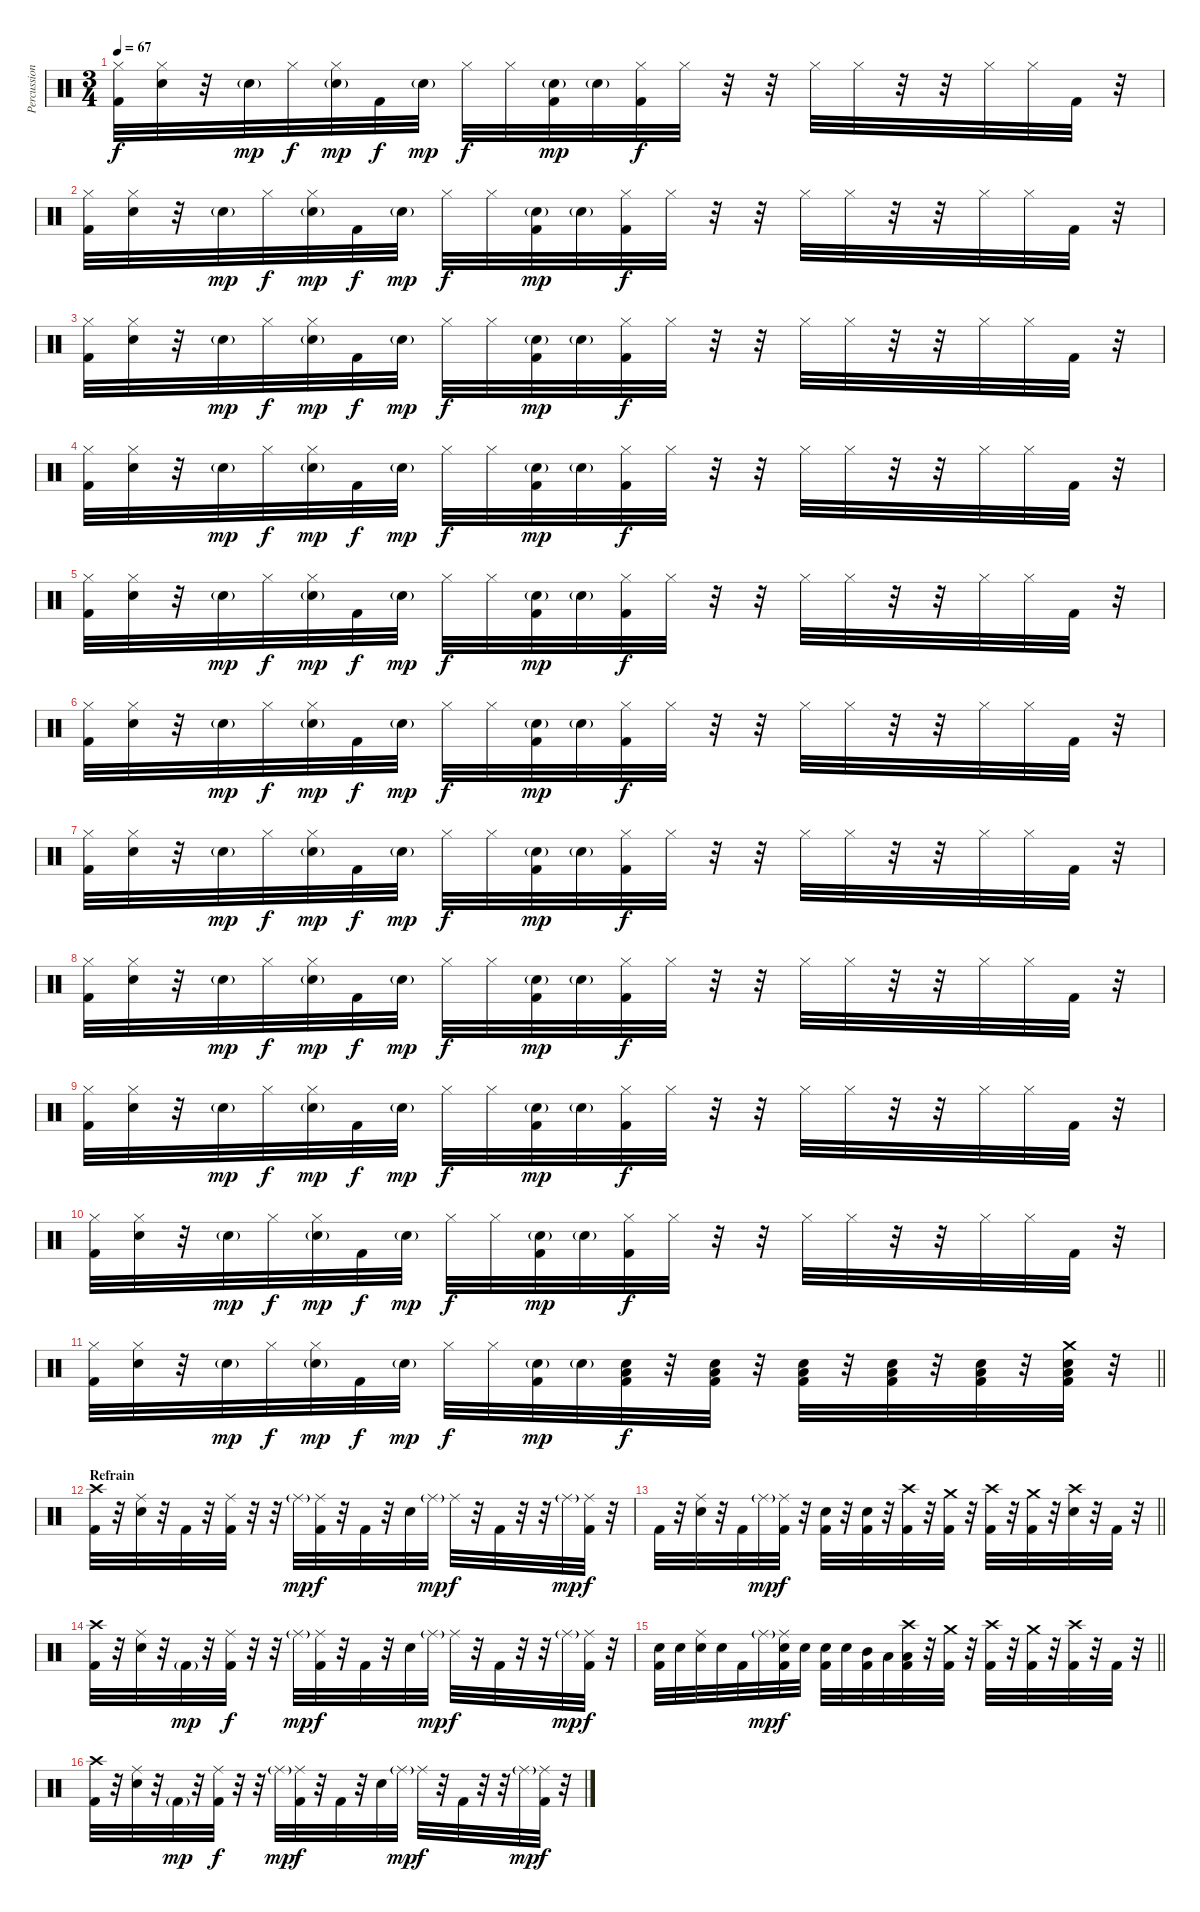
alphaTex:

\track ("Percussions" "Percussion") {instrument percussion}
\staff {score}
\articulation defaults
\ts (3 4)
\tempo 67
\clef neutral
\ks c
("Hi-Hat (closed)" "Kick (hit) 2").32{dy f} ("Hi-Hat (closed)" "Electric Snare (hit)").32 r.32 "Electric Snare (hit)"{g}.32{dy mp} "Hi-Hat (closed)".32{dy f} ("Hi-Hat (closed)" "Electric Snare (hit)"{g}).32{dy mp} "Kick (hit) 2".32{dy f} "Electric Snare (hit)"{g}.32{dy mp} "Hi-Hat (closed)".32{dy f} "Hi-Hat (closed)".32 ("Electric Snare (hit)"{g} "Kick (hit) 2").32{dy mp} "Electric Snare (hit)"{g}.32 ("Hi-Hat (closed)" "Kick (hit) 2").32{dy f} "Hi-Hat (closed)".32 r.32 r.32 "Hi-Hat (closed)".32 "Hi-Hat (closed)".32 r.32 r.32 "Hi-Hat (closed)".32 "Hi-Hat (closed)".32 "Kick (hit) 2".32 r.32 |
("Hi-Hat (closed)" "Kick (hit) 2").32 ("Hi-Hat (closed)" "Electric Snare (hit)").32 r.32 "Electric Snare (hit)"{g}.32{dy mp} "Hi-Hat (closed)".32{dy f} ("Hi-Hat (closed)" "Electric Snare (hit)"{g}).32{dy mp} "Kick (hit) 2".32{dy f} "Electric Snare (hit)"{g}.32{dy mp} "Hi-Hat (closed)".32{dy f} "Hi-Hat (closed)".32 ("Electric Snare (hit)"{g} "Kick (hit) 2").32{dy mp} "Electric Snare (hit)"{g}.32 ("Hi-Hat (closed)" "Kick (hit) 2").32{dy f} "Hi-Hat (closed)".32 r.32 r.32 "Hi-Hat (closed)".32 "Hi-Hat (closed)".32 r.32 r.32 "Hi-Hat (closed)".32 "Hi-Hat (closed)".32 "Kick (hit) 2".32 r.32 |
("Hi-Hat (closed)" "Kick (hit) 2").32 ("Hi-Hat (closed)" "Electric Snare (hit)").32 r.32 "Electric Snare (hit)"{g}.32{dy mp} "Hi-Hat (closed)".32{dy f} ("Hi-Hat (closed)" "Electric Snare (hit)"{g}).32{dy mp} "Kick (hit) 2".32{dy f} "Electric Snare (hit)"{g}.32{dy mp} "Hi-Hat (closed)".32{dy f} "Hi-Hat (closed)".32 ("Electric Snare (hit)"{g} "Kick (hit) 2").32{dy mp} "Electric Snare (hit)"{g}.32 ("Hi-Hat (closed)" "Kick (hit) 2").32{dy f} "Hi-Hat (closed)".32 r.32 r.32 "Hi-Hat (closed)".32 "Hi-Hat (closed)".32 r.32 r.32 "Hi-Hat (closed)".32 "Hi-Hat (closed)".32 "Kick (hit) 2".32 r.32 |
("Hi-Hat (closed)" "Kick (hit) 2").32 ("Hi-Hat (closed)" "Electric Snare (hit)").32 r.32 "Electric Snare (hit)"{g}.32{dy mp} "Hi-Hat (closed)".32{dy f} ("Hi-Hat (closed)" "Electric Snare (hit)"{g}).32{dy mp} "Kick (hit) 2".32{dy f} "Electric Snare (hit)"{g}.32{dy mp} "Hi-Hat (closed)".32{dy f} "Hi-Hat (closed)".32 ("Electric Snare (hit)"{g} "Kick (hit) 2").32{dy mp} "Electric Snare (hit)"{g}.32 ("Hi-Hat (closed)" "Kick (hit) 2").32{dy f} "Hi-Hat (closed)".32 r.32 r.32 "Hi-Hat (closed)".32 "Hi-Hat (closed)".32 r.32 r.32 "Hi-Hat (closed)".32 "Hi-Hat (closed)".32 "Kick (hit) 2".32 r.32 |
("Hi-Hat (closed)" "Kick (hit) 2").32 ("Hi-Hat (closed)" "Electric Snare (hit)").32 r.32 "Electric Snare (hit)"{g}.32{dy mp} "Hi-Hat (closed)".32{dy f} ("Hi-Hat (closed)" "Electric Snare (hit)"{g}).32{dy mp} "Kick (hit) 2".32{dy f} "Electric Snare (hit)"{g}.32{dy mp} "Hi-Hat (closed)".32{dy f} "Hi-Hat (closed)".32 ("Electric Snare (hit)"{g} "Kick (hit) 2").32{dy mp} "Electric Snare (hit)"{g}.32 ("Hi-Hat (closed)" "Kick (hit) 2").32{dy f} "Hi-Hat (closed)".32 r.32 r.32 "Hi-Hat (closed)".32 "Hi-Hat (closed)".32 r.32 r.32 "Hi-Hat (closed)".32 "Hi-Hat (closed)".32 "Kick (hit) 2".32 r.32 |
("Hi-Hat (closed)" "Kick (hit) 2").32 ("Hi-Hat (closed)" "Electric Snare (hit)").32 r.32 "Electric Snare (hit)"{g}.32{dy mp} "Hi-Hat (closed)".32{dy f} ("Hi-Hat (closed)" "Electric Snare (hit)"{g}).32{dy mp} "Kick (hit) 2".32{dy f} "Electric Snare (hit)"{g}.32{dy mp} "Hi-Hat (closed)".32{dy f} "Hi-Hat (closed)".32 ("Electric Snare (hit)"{g} "Kick (hit) 2").32{dy mp} "Electric Snare (hit)"{g}.32 ("Hi-Hat (closed)" "Kick (hit) 2").32{dy f} "Hi-Hat (closed)".32 r.32 r.32 "Hi-Hat (closed)".32 "Hi-Hat (closed)".32 r.32 r.32 "Hi-Hat (closed)".32 "Hi-Hat (closed)".32 "Kick (hit) 2".32 r.32 |
("Hi-Hat (closed)" "Kick (hit) 2").32 ("Hi-Hat (closed)" "Electric Snare (hit)").32 r.32 "Electric Snare (hit)"{g}.32{dy mp} "Hi-Hat (closed)".32{dy f} ("Hi-Hat (closed)" "Electric Snare (hit)"{g}).32{dy mp} "Kick (hit) 2".32{dy f} "Electric Snare (hit)"{g}.32{dy mp} "Hi-Hat (closed)".32{dy f} "Hi-Hat (closed)".32 ("Electric Snare (hit)"{g} "Kick (hit) 2").32{dy mp} "Electric Snare (hit)"{g}.32 ("Hi-Hat (closed)" "Kick (hit) 2").32{dy f} "Hi-Hat (closed)".32 r.32 r.32 "Hi-Hat (closed)".32 "Hi-Hat (closed)".32 r.32 r.32 "Hi-Hat (closed)".32 "Hi-Hat (closed)".32 "Kick (hit) 2".32 r.32 |
("Hi-Hat (closed)" "Kick (hit) 2").32 ("Hi-Hat (closed)" "Electric Snare (hit)").32 r.32 "Electric Snare (hit)"{g}.32{dy mp} "Hi-Hat (closed)".32{dy f} ("Hi-Hat (closed)" "Electric Snare (hit)"{g}).32{dy mp} "Kick (hit) 2".32{dy f} "Electric Snare (hit)"{g}.32{dy mp} "Hi-Hat (closed)".32{dy f} "Hi-Hat (closed)".32 ("Electric Snare (hit)"{g} "Kick (hit) 2").32{dy mp} "Electric Snare (hit)"{g}.32 ("Hi-Hat (closed)" "Kick (hit) 2").32{dy f} "Hi-Hat (closed)".32 r.32 r.32 "Hi-Hat (closed)".32 "Hi-Hat (closed)".32 r.32 r.32 "Hi-Hat (closed)".32 "Hi-Hat (closed)".32 "Kick (hit) 2".32 r.32 |
("Hi-Hat (closed)" "Kick (hit) 2").32 ("Hi-Hat (closed)" "Electric Snare (hit)").32 r.32 "Electric Snare (hit)"{g}.32{dy mp} "Hi-Hat (closed)".32{dy f} ("Hi-Hat (closed)" "Electric Snare (hit)"{g}).32{dy mp} "Kick (hit) 2".32{dy f} "Electric Snare (hit)"{g}.32{dy mp} "Hi-Hat (closed)".32{dy f} "Hi-Hat (closed)".32 ("Electric Snare (hit)"{g} "Kick (hit) 2").32{dy mp} "Electric Snare (hit)"{g}.32 ("Hi-Hat (closed)" "Kick (hit) 2").32{dy f} "Hi-Hat (closed)".32 r.32 r.32 "Hi-Hat (closed)".32 "Hi-Hat (closed)".32 r.32 r.32 "Hi-Hat (closed)".32 "Hi-Hat (closed)".32 "Kick (hit) 2".32 r.32 |
("Hi-Hat (closed)" "Kick (hit) 2").32 ("Hi-Hat (closed)" "Electric Snare (hit)").32 r.32 "Electric Snare (hit)"{g}.32{dy mp} "Hi-Hat (closed)".32{dy f} ("Hi-Hat (closed)" "Electric Snare (hit)"{g}).32{dy mp} "Kick (hit) 2".32{dy f} "Electric Snare (hit)"{g}.32{dy mp} "Hi-Hat (closed)".32{dy f} "Hi-Hat (closed)".32 ("Electric Snare (hit)"{g} "Kick (hit) 2").32{dy mp} "Electric Snare (hit)"{g}.32 ("Hi-Hat (closed)" "Kick (hit) 2").32{dy f} "Hi-Hat (closed)".32 r.32 r.32 "Hi-Hat (closed)".32 "Hi-Hat (closed)".32 r.32 r.32 "Hi-Hat (closed)".32 "Hi-Hat (closed)".32 "Kick (hit) 2".32 r.32 |
\barLineRight lightlight
("Hi-Hat (closed)" "Kick (hit) 2").32 ("Hi-Hat (closed)" "Electric Snare (hit)").32 r.32 "Electric Snare (hit)"{g}.32{dy mp} "Hi-Hat (closed)".32{dy f} ("Hi-Hat (closed)" "Electric Snare (hit)"{g}).32{dy mp} "Kick (hit) 2".32{dy f} "Electric Snare (hit)"{g}.32{dy mp} "Hi-Hat (closed)".32{dy f} "Hi-Hat (closed)".32 ("Electric Snare (hit)"{g} "Kick (hit) 2").32{dy mp} "Electric Snare (hit)"{g}.32 ("Low Floor Tom (hit)" "Electric Snare (hit)" "Kick (hit) 2").32{dy f} r.32 ("Low Floor Tom (hit)" "Electric Snare (hit)" "Kick (hit) 2").32 r.32 ("Low Floor Tom (hit)" "Electric Snare (hit)" "Kick (hit) 2").32 r.32 ("Low Floor Tom (hit)" "Electric Snare (hit)" "Kick (hit) 2").32 r.32 ("Low Floor Tom (hit)" "Electric Snare (hit)" "Kick (hit) 2").32 r.32 ("Crash medium (hit)" "Low Floor Tom (hit)" "Electric Snare (hit)" "Kick (hit) 2").32 r.32 |
\section ("" "Refrain")
("Crash high (hit)" "Kick (hit) 2").32 r.32 ("Ride (middle)" "Electric Snare (hit)").32 r.32 "Kick (hit) 2".32 r.32 ("Ride (middle)" "Kick (hit) 2").32 r.32 r.32 "Ride (middle)"{g}.32{dy mp} ("Ride (middle)" "Kick (hit) 2").32{dy f} r.32 "Kick (hit) 2".32 r.32 "Electric Snare (hit)".32 "Ride (middle)"{g}.32{dy mp} "Ride (middle)".32{dy f} r.32 "Kick (hit) 2".32 r.32 r.32 "Ride (middle)"{g}.32{dy mp} ("Ride (middle)" "Kick (hit) 2").32{dy f} r.32 |
\barLineRight lightlight "Kick (hit) 2".32
r.32 ("Ride (middle)" "Electric Snare (hit)").32 r.32 "Kick (hit) 2".32 "Ride (middle)"{g}.32{dy mp} ("Ride (middle)" "Kick (hit) 2").32{dy f} r.32 ("Electric Snare (hit)" "Kick (hit) 2").32 r.32 ("Electric Snare (hit)" "Kick (hit) 2").32 r.32 ("Crash high (hit)" "Kick (hit) 2").32 r.32 ("Crash medium (hit)" "Kick (hit) 2").32 r.32 ("Crash high (hit)" "Kick (hit) 2").32 r.32 ("Crash medium (hit)" "Kick (hit) 2").32 r.32 ("Crash high (hit)" "Electric Snare (hit)").32 r.32 "Kick (hit) 2".32 r.32 |
("Crash high (hit)" "Kick (hit) 2").32 r.32 ("Ride (middle)" "Electric Snare (hit)").32 r.32 "Kick (hit) 2"{g}.32{dy mp} r.32 ("Ride (middle)" "Kick (hit) 2").32{dy f} r.32 r.32 "Ride (middle)"{g}.32{dy mp} ("Ride (middle)" "Kick (hit) 2").32{dy f} r.32 "Kick (hit) 2".32 r.32 "Electric Snare (hit)".32 "Ride (middle)"{g}.32{dy mp} "Ride (middle)".32{dy f} r.32 "Kick (hit) 2".32 r.32 r.32 "Ride (middle)"{g}.32{dy mp} ("Ride (middle)" "Kick (hit) 2").32{dy f} r.32 |
\barLineRight lightlight
("Electric Snare (hit)" "Kick (hit) 2").32 "Electric Snare (hit)".32 ("Ride (middle)" "Electric Snare (hit)").32 "Electric Snare (hit)".32 "Kick (hit) 2".32 "Ride (middle)"{g}.32{dy mp} ("Ride (middle)" "Electric Snare (hit)" "Kick (hit) 2").32{dy f} "Electric Snare (hit)".32 ("Electric Snare (hit)" "Kick (hit) 2").32 "Electric Snare (hit)".32 ("Mid Tom (hit)" "Kick (hit) 2").32 "Low Tom (hit)".32 ("Crash high (hit)" "Low Floor Tom (hit)" "Kick (hit) 2").32 r.32 ("Crash medium (hit)" "Kick (hit) 2").32 r.32 ("Crash high (hit)" "Kick (hit) 2").32 r.32 ("Crash medium (hit)" "Kick (hit) 2").32 r.32 ("Crash high (hit)" "Kick (hit) 2").32 r.32 "Kick (hit) 2".32 r.32 |
("Crash high (hit)" "Kick (hit) 2").32 r.32 ("Ride (middle)" "Electric Snare (hit)").32 r.32 "Kick (hit) 2"{g}.32{dy mp} r.32 ("Ride (middle)" "Kick (hit) 2").32{dy f} r.32 r.32 "Ride (middle)"{g}.32{dy mp} ("Ride (middle)" "Kick (hit) 2").32{dy f} r.32 "Kick (hit) 2".32 r.32 "Electric Snare (hit)".32 "Ride (middle)"{g}.32{dy mp} "Ride (middle)".32{dy f} r.32 "Kick (hit) 2".32 r.32 r.32 "Ride (middle)"{g}.32{dy mp} ("Ride (middle)" "Kick (hit) 2").32{dy f} r.32
